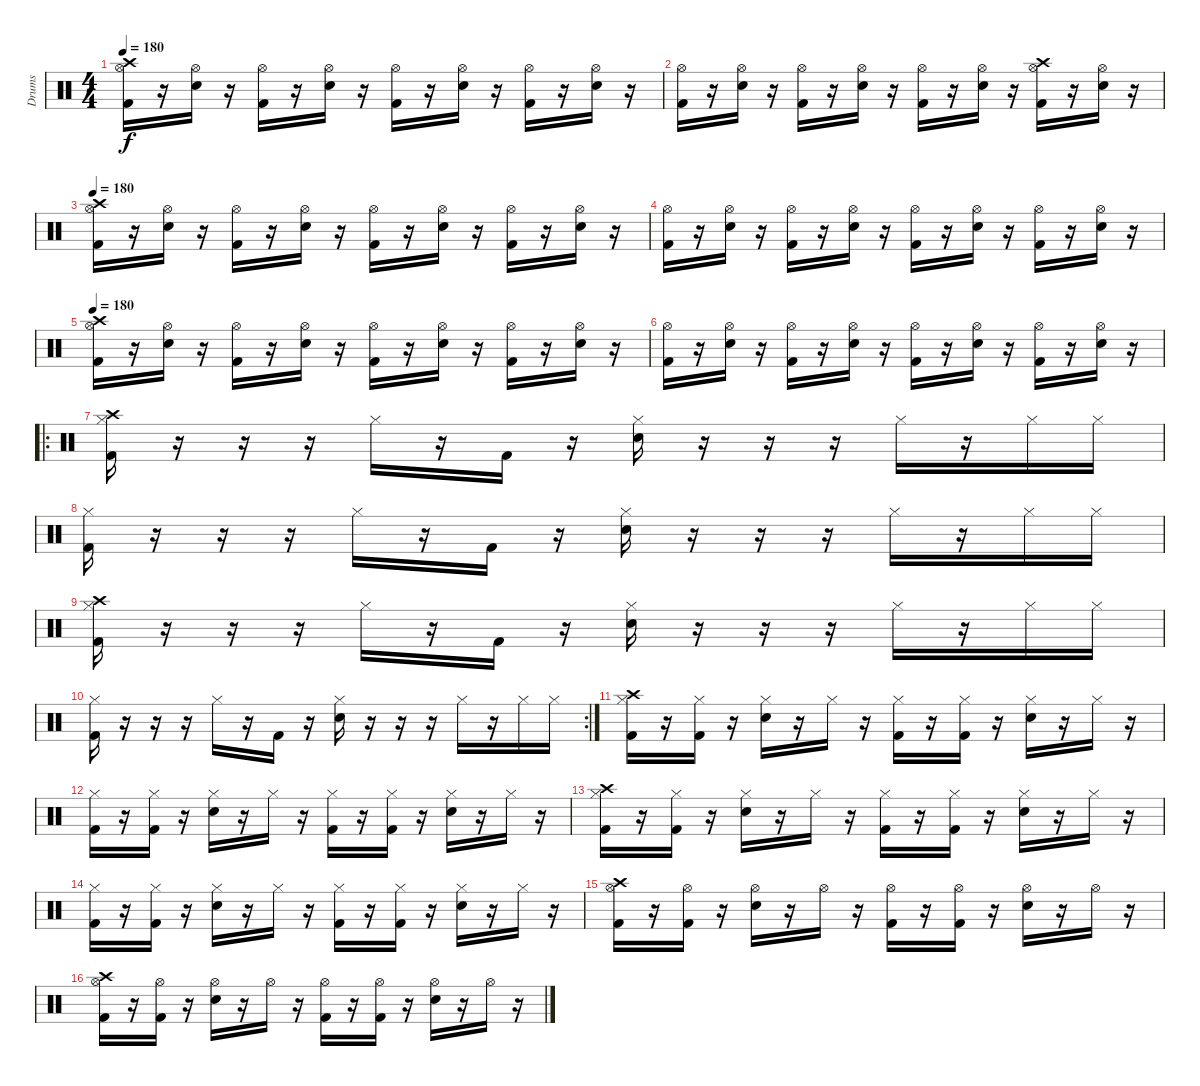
\track ("Drums" "Drums") {instrument percussion}
\staff {score}
\articulation defaults
\ts (4 4)
\tempo 180
\clef neutral
\ks c
("Hi-Hat (open)" "Kick (hit) 2" "Crash high (hit)").16{dy f} r.16 ("Hi-Hat (open)" "Snare (hit) 2").16 r.16 ("Hi-Hat (open)" "Kick (hit) 2").16 r.16 ("Hi-Hat (open)" "Snare (hit) 2").16 r.16 ("Hi-Hat (open)" "Kick (hit) 2").16 r.16 ("Hi-Hat (open)" "Snare (hit) 2").16 r.16 ("Hi-Hat (open)" "Kick (hit) 2").16 r.16 ("Hi-Hat (open)" "Snare (hit) 2").16 r.16 |
("Hi-Hat (open)" "Kick (hit) 2").16 r.16 ("Hi-Hat (open)" "Snare (hit) 2").16 r.16 ("Hi-Hat (open)" "Kick (hit) 2").16 r.16 ("Hi-Hat (open)" "Snare (hit) 2").16 r.16 ("Hi-Hat (open)" "Kick (hit) 2").16 r.16 ("Hi-Hat (open)" "Snare (hit) 2").16 r.16 ("Hi-Hat (open)" "Kick (hit) 2" "Crash high (hit)").16 r.16 ("Hi-Hat (open)" "Snare (hit) 2").16 r.16 |
\tempo 180
("Hi-Hat (open)" "Kick (hit) 2" "Crash high (hit)").16 r.16 ("Hi-Hat (open)" "Snare (hit) 2").16 r.16 ("Hi-Hat (open)" "Kick (hit) 2").16 r.16 ("Hi-Hat (open)" "Snare (hit) 2").16 r.16 ("Hi-Hat (open)" "Kick (hit) 2").16 r.16 ("Hi-Hat (open)" "Snare (hit) 2").16 r.16 ("Hi-Hat (open)" "Kick (hit) 2").16 r.16 ("Hi-Hat (open)" "Snare (hit) 2").16 r.16 |
("Hi-Hat (open)" "Kick (hit) 2").16 r.16 ("Hi-Hat (open)" "Snare (hit) 2").16 r.16 ("Hi-Hat (open)" "Kick (hit) 2").16 r.16 ("Hi-Hat (open)" "Snare (hit) 2").16 r.16 ("Hi-Hat (open)" "Kick (hit) 2").16 r.16 ("Hi-Hat (open)" "Snare (hit) 2").16 r.16 ("Hi-Hat (open)" "Kick (hit) 2").16 r.16 ("Hi-Hat (open)" "Snare (hit) 2").16 r.16 |
\tempo 180
("Hi-Hat (open)" "Kick (hit) 2" "Crash high (hit)").16 r.16 ("Hi-Hat (open)" "Snare (hit) 2").16 r.16 ("Hi-Hat (open)" "Kick (hit) 2").16 r.16 ("Hi-Hat (open)" "Snare (hit) 2").16 r.16 ("Hi-Hat (open)" "Kick (hit) 2").16 r.16 ("Hi-Hat (open)" "Snare (hit) 2").16 r.16 ("Hi-Hat (open)" "Kick (hit) 2").16 r.16 ("Hi-Hat (open)" "Snare (hit) 2").16 r.16 |
("Hi-Hat (open)" "Kick (hit) 2").16 r.16 ("Hi-Hat (open)" "Snare (hit) 2").16 r.16 ("Hi-Hat (open)" "Kick (hit) 2").16 r.16 ("Hi-Hat (open)" "Snare (hit) 2").16 r.16 ("Hi-Hat (open)" "Kick (hit) 2").16 r.16 ("Hi-Hat (open)" "Snare (hit) 2").16 r.16 ("Hi-Hat (open)" "Kick (hit) 2").16 r.16 ("Hi-Hat (open)" "Snare (hit) 2").16 r.16 |
\ro
("Hi-Hat (closed)" "Kick (hit) 2" "Crash high (hit)").16 r.16 r.16 r.16 "Hi-Hat (closed)".16 r.16 "Kick (hit) 2".16 r.16 ("Hi-Hat (closed)" "Snare (hit) 2").16 r.16 r.16 r.16 "Hi-Hat (closed)".16 r.16 "Hi-Hat (closed)".16 "Hi-Hat (closed)".16 |
("Hi-Hat (closed)" "Kick (hit) 2").16 r.16 r.16 r.16 "Hi-Hat (closed)".16 r.16 "Kick (hit) 2".16 r.16 ("Hi-Hat (closed)" "Snare (hit) 2").16 r.16 r.16 r.16 "Hi-Hat (closed)".16 r.16 "Hi-Hat (closed)".16 "Hi-Hat (closed)".16 |
("Hi-Hat (closed)" "Kick (hit) 2" "Crash high (hit)").16 r.16 r.16 r.16 "Hi-Hat (closed)".16 r.16 "Kick (hit) 2".16 r.16 ("Hi-Hat (closed)" "Snare (hit) 2").16 r.16 r.16 r.16 "Hi-Hat (closed)".16 r.16 "Hi-Hat (closed)".16 "Hi-Hat (closed)".16 |
\rc 2
("Hi-Hat (closed)" "Kick (hit) 2").16 r.16 r.16 r.16 "Hi-Hat (closed)".16 r.16 "Kick (hit) 2".16 r.16 ("Hi-Hat (closed)" "Snare (hit) 2").16 r.16 r.16 r.16 "Hi-Hat (closed)".16 r.16 "Hi-Hat (closed)".16 "Hi-Hat (closed)".16 |
("Hi-Hat (closed)" "Kick (hit) 2" "Crash high (hit)").16 r.16 ("Hi-Hat (closed)" "Kick (hit) 2").16 r.16 ("Hi-Hat (closed)" "Snare (hit) 2").16 r.16 "Hi-Hat (closed)".16 r.16 ("Hi-Hat (closed)" "Kick (hit) 2").16 r.16 ("Hi-Hat (closed)" "Kick (hit) 2").16 r.16 ("Hi-Hat (closed)" "Snare (hit) 2").16 r.16 "Hi-Hat (closed)".16 r.16 |
("Hi-Hat (closed)" "Kick (hit) 2").16 r.16 ("Hi-Hat (closed)" "Kick (hit) 2").16 r.16 ("Hi-Hat (closed)" "Snare (hit) 2").16 r.16 "Hi-Hat (closed)".16 r.16 ("Hi-Hat (closed)" "Kick (hit) 2").16 r.16 ("Hi-Hat (closed)" "Kick (hit) 2").16 r.16 ("Hi-Hat (closed)" "Snare (hit) 2").16 r.16 "Hi-Hat (closed)".16 r.16 |
("Hi-Hat (closed)" "Kick (hit) 2" "Crash high (hit)").16 r.16 ("Hi-Hat (closed)" "Kick (hit) 2").16 r.16 ("Hi-Hat (closed)" "Snare (hit) 2").16 r.16 "Hi-Hat (closed)".16 r.16 ("Hi-Hat (closed)" "Kick (hit) 2").16 r.16 ("Hi-Hat (closed)" "Kick (hit) 2").16 r.16 ("Hi-Hat (closed)" "Snare (hit) 2").16 r.16 "Hi-Hat (closed)".16 r.16 |
("Hi-Hat (closed)" "Kick (hit) 2").16 r.16 ("Hi-Hat (closed)" "Kick (hit) 2").16 r.16 ("Hi-Hat (closed)" "Snare (hit) 2").16 r.16 "Hi-Hat (closed)".16 r.16 ("Hi-Hat (closed)" "Kick (hit) 2").16 r.16 ("Hi-Hat (closed)" "Kick (hit) 2").16 r.16 ("Hi-Hat (closed)" "Snare (hit) 2").16 r.16 "Hi-Hat (closed)".16 r.16 |
("Hi-Hat (open)" "Kick (hit) 2" "Crash high (hit)").16 r.16 ("Hi-Hat (open)" "Kick (hit) 2").16 r.16 ("Hi-Hat (open)" "Snare (hit) 2").16 r.16 "Hi-Hat (open)".16 r.16 ("Hi-Hat (open)" "Kick (hit) 2").16 r.16 ("Hi-Hat (open)" "Kick (hit) 2").16 r.16 ("Hi-Hat (open)" "Snare (hit) 2").16 r.16 "Hi-Hat (open)".16 r.16 |
("Hi-Hat (open)" "Kick (hit) 2" "Crash high (hit)").16 r.16 ("Hi-Hat (open)" "Kick (hit) 2").16 r.16 ("Hi-Hat (open)" "Snare (hit) 2").16 r.16 "Hi-Hat (open)".16 r.16 ("Hi-Hat (open)" "Kick (hit) 2").16 r.16 ("Hi-Hat (open)" "Kick (hit) 2").16 r.16 ("Hi-Hat (open)" "Snare (hit) 2").16 r.16 "Hi-Hat (open)".16 r.16
